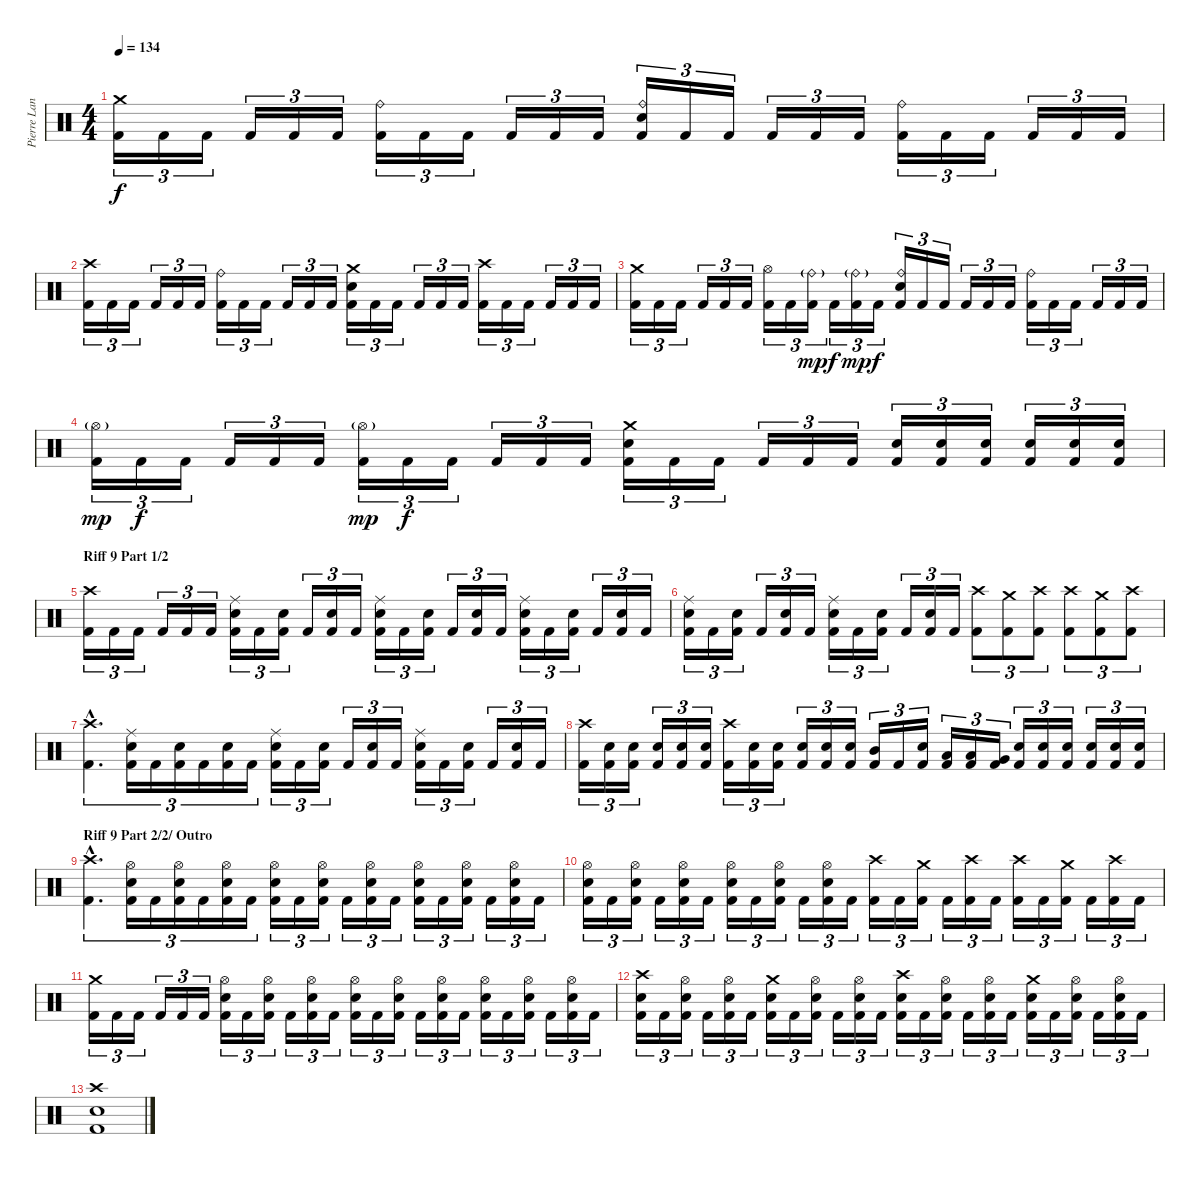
\track ("Pierre Langlois (Drums)" "Pierre Lan") {instrument percussion}
\staff {score}
\articulation defaults
\ts (4 4)
\tempo 134
\clef neutral
\ks c
("Crash medium (hit)" "Kick (hit) 2").16{tu (3 2) dy f} "Kick (hit) 2".16{tu (3 2)} "Kick (hit) 2".16{tu (3 2)} "Kick (hit) 2".16{tu (3 2)} "Kick (hit) 2".16{tu (3 2)} "Kick (hit) 2".16{tu (3 2)} ("Ride (bell)" "Kick (hit) 2").16{tu (3 2)} "Kick (hit) 2".16{tu (3 2)} "Kick (hit) 2".16{tu (3 2)} "Kick (hit) 2".16{tu (3 2)} "Kick (hit) 2".16{tu (3 2)} "Kick (hit) 2".16{tu (3 2)} ("Ride (bell)" "Snare (hit) 2" "Kick (hit) 2").16{tu (3 2)} "Kick (hit) 2".16{tu (3 2)} "Kick (hit) 2".16{tu (3 2)} "Kick (hit) 2".16{tu (3 2)} "Kick (hit) 2".16{tu (3 2)} "Kick (hit) 2".16{tu (3 2)} ("Ride (bell)" "Kick (hit) 2").16{tu (3 2)} "Kick (hit) 2".16{tu (3 2)} "Kick (hit) 2".16{tu (3 2)} "Kick (hit) 2".16{tu (3 2)} "Kick (hit) 2".16{tu (3 2)} "Kick (hit) 2".16{tu (3 2)} |
("Crash high (hit)" "Kick (hit) 2").16{tu (3 2)} "Kick (hit) 2".16{tu (3 2)} "Kick (hit) 2".16{tu (3 2)} "Kick (hit) 2".16{tu (3 2)} "Kick (hit) 2".16{tu (3 2)} "Kick (hit) 2".16{tu (3 2)} ("Ride (bell)" "Kick (hit) 2").16{tu (3 2)} "Kick (hit) 2".16{tu (3 2)} "Kick (hit) 2".16{tu (3 2)} "Kick (hit) 2".16{tu (3 2)} "Kick (hit) 2".16{tu (3 2)} "Kick (hit) 2".16{tu (3 2)} ("Crash medium (hit)" "Snare (hit) 2" "Kick (hit) 2").16{tu (3 2)} "Kick (hit) 2".16{tu (3 2)} "Kick (hit) 2".16{tu (3 2)} "Kick (hit) 2".16{tu (3 2)} "Kick (hit) 2".16{tu (3 2)} "Kick (hit) 2".16{tu (3 2)} ("Crash high (hit)" "Kick (hit) 2").16{tu (3 2)} "Kick (hit) 2".16{tu (3 2)} "Kick (hit) 2".16{tu (3 2)} "Kick (hit) 2".16{tu (3 2)} "Kick (hit) 2".16{tu (3 2)} "Kick (hit) 2".16{tu (3 2)} |
("Crash medium (hit)" "Kick (hit) 2").16{tu (3 2)} "Kick (hit) 2".16{tu (3 2)} "Kick (hit) 2".16{tu (3 2)} "Kick (hit) 2".16{tu (3 2)} "Kick (hit) 2".16{tu (3 2)} "Kick (hit) 2".16{tu (3 2)} ("Hi-Hat (open)" "Kick (hit) 2").16{tu (3 2)} "Kick (hit) 2".16{tu (3 2)} ("Ride (bell)"{g} "Kick (hit) 2").16{tu (3 2) dy mp} "Kick (hit) 2".16{tu (3 2) dy f} ("Ride (bell)"{g} "Kick (hit) 2").16{tu (3 2) dy mp} "Kick (hit) 2".16{tu (3 2) dy f} ("Ride (bell)" "Snare (hit) 2" "Kick (hit) 2").16{tu (3 2)} "Kick (hit) 2".16{tu (3 2)} "Kick (hit) 2".16{tu (3 2)} "Kick (hit) 2".16{tu (3 2)} "Kick (hit) 2".16{tu (3 2)} "Kick (hit) 2".16{tu (3 2)} ("Ride (bell)" "Kick (hit) 2").16{tu (3 2)} "Kick (hit) 2".16{tu (3 2)} "Kick (hit) 2".16{tu (3 2)} "Kick (hit) 2".16{tu (3 2)} "Kick (hit) 2".16{tu (3 2)} "Kick (hit) 2".16{tu (3 2)} |
("Hi-Hat (open)"{g} "Kick (hit) 2").16{tu (3 2) dy mp} "Kick (hit) 2".16{tu (3 2) dy f} "Kick (hit) 2".16{tu (3 2)} "Kick (hit) 2".16{tu (3 2)} "Kick (hit) 2".16{tu (3 2)} "Kick (hit) 2".16{tu (3 2)} ("Hi-Hat (open)"{g} "Kick (hit) 2").16{tu (3 2) dy mp} "Kick (hit) 2".16{tu (3 2) dy f} "Kick (hit) 2".16{tu (3 2)} "Kick (hit) 2".16{tu (3 2)} "Kick (hit) 2".16{tu (3 2)} "Kick (hit) 2".16{tu (3 2)} ("Crash medium (hit)" "Snare (hit) 2" "Kick (hit) 2").16{tu (3 2)} "Kick (hit) 2".16{tu (3 2)} "Kick (hit) 2".16{tu (3 2)} "Kick (hit) 2".16{tu (3 2)} "Kick (hit) 2".16{tu (3 2)} "Kick (hit) 2".16{tu (3 2)} ("Snare (hit) 2" "Kick (hit) 2").16{tu (3 2)} ("Snare (hit) 2" "Kick (hit) 2").16{tu (3 2)} ("Snare (hit) 2" "Kick (hit) 2").16{tu (3 2)} ("Snare (hit) 2" "Kick (hit) 2").16{tu (3 2)} ("Snare (hit) 2" "Kick (hit) 2").16{tu (3 2)} ("Snare (hit) 2" "Kick (hit) 2").16{tu (3 2)} |
\section ("" "Riff 9 Part 1/2")
("Crash high (hit)" "Kick (hit) 2").16{tu (3 2)} "Kick (hit) 2".16{tu (3 2)} "Kick (hit) 2".16{tu (3 2)} "Kick (hit) 2".16{tu (3 2)} "Kick (hit) 2".16{tu (3 2)} "Kick (hit) 2".16{tu (3 2)} ("Ride (middle)" "Snare (hit) 2" "Kick (hit) 2").16{tu (3 2)} "Kick (hit) 2".16{tu (3 2)} ("Snare (hit) 2" "Kick (hit) 2").16{tu (3 2)} "Kick (hit) 2".16{tu (3 2)} ("Snare (hit) 2" "Kick (hit) 2").16{tu (3 2)} "Kick (hit) 2".16{tu (3 2)} ("Snare (hit) 2" "Ride (middle)" "Kick (hit) 2").16{tu (3 2)} "Kick (hit) 2".16{tu (3 2)} ("Snare (hit) 2" "Kick (hit) 2").16{tu (3 2)} "Kick (hit) 2".16{tu (3 2)} ("Snare (hit) 2" "Kick (hit) 2").16{tu (3 2)} "Kick (hit) 2".16{tu (3 2)} ("Snare (hit) 2" "Ride (middle)" "Kick (hit) 2").16{tu (3 2)} "Kick (hit) 2".16{tu (3 2)} ("Snare (hit) 2" "Kick (hit) 2").16{tu (3 2)} "Kick (hit) 2".16{tu (3 2)} ("Snare (hit) 2" "Kick (hit) 2").16{tu (3 2)} "Kick (hit) 2".16{tu (3 2)} |
("Ride (middle)" "Snare (hit) 2" "Kick (hit) 2").16{tu (3 2)} "Kick (hit) 2".16{tu (3 2)} ("Snare (hit) 2" "Kick (hit) 2").16{tu (3 2)} "Kick (hit) 2".16{tu (3 2)} ("Snare (hit) 2" "Kick (hit) 2").16{tu (3 2)} "Kick (hit) 2".16{tu (3 2)} ("Ride (middle)" "Snare (hit) 2" "Kick (hit) 2").16{tu (3 2)} "Kick (hit) 2".16{tu (3 2)} ("Snare (hit) 2" "Kick (hit) 2").16{tu (3 2)} "Kick (hit) 2".16{tu (3 2)} ("Snare (hit) 2" "Kick (hit) 2").16{tu (3 2)} "Kick (hit) 2".16{tu (3 2)} ("Crash high (hit)" "Kick (hit) 2").8{tu (3 2)} ("Crash medium (hit)" "Kick (hit) 2").8{tu (3 2)} ("Crash high (hit)" "Kick (hit) 2").8{tu (3 2)} ("Crash high (hit)" "Kick (hit) 2").8{tu (3 2)} ("Crash medium (hit)" "Kick (hit) 2").8{tu (3 2)} ("Crash high (hit)" "Kick (hit) 2").8{tu (3 2)} |
("Crash high (hit)"{hac} "Kick (hit) 2"{hac}).4{d tu (3 2)} ("Ride (middle)" "Snare (hit) 2" "Kick (hit) 2").16{tu (3 2)} "Kick (hit) 2".16{tu (3 2)} ("Snare (hit) 2" "Kick (hit) 2").16{tu (3 2)} "Kick (hit) 2".16{tu (3 2)} ("Snare (hit) 2" "Kick (hit) 2").16{tu (3 2)} "Kick (hit) 2".16{tu (3 2)} ("Snare (hit) 2" "Ride (middle)" "Kick (hit) 2").16{tu (3 2)} "Kick (hit) 2".16{tu (3 2)} ("Snare (hit) 2" "Kick (hit) 2").16{tu (3 2)} "Kick (hit) 2".16{tu (3 2)} ("Snare (hit) 2" "Kick (hit) 2").16{tu (3 2)} "Kick (hit) 2".16{tu (3 2)} ("Snare (hit) 2" "Ride (middle)" "Kick (hit) 2").16{tu (3 2)} "Kick (hit) 2".16{tu (3 2)} ("Snare (hit) 2" "Kick (hit) 2").16{tu (3 2)} "Kick (hit) 2".16{tu (3 2)} ("Snare (hit) 2" "Kick (hit) 2").16{tu (3 2)} "Kick (hit) 2".16{tu (3 2)} |
("Crash high (hit)" "Kick (hit) 2").16{tu (3 2)} ("Snare (hit) 2" "Kick (hit) 2").16{tu (3 2)} ("Snare (hit) 2" "Kick (hit) 2").16{tu (3 2)} ("Snare (hit) 2" "Kick (hit) 2").16{tu (3 2)} ("Snare (hit) 2" "Kick (hit) 2").16{tu (3 2)} ("Snare (hit) 2" "Kick (hit) 2").16{tu (3 2)} ("Crash high (hit)" "Kick (hit) 2").16{tu (3 2)} ("Snare (hit) 2" "Kick (hit) 2").16{tu (3 2)} ("Snare (hit) 2" "Kick (hit) 2").16{tu (3 2)} ("Snare (hit) 2" "Kick (hit) 2").16{tu (3 2)} ("Snare (hit) 2" "Kick (hit) 2").16{tu (3 2)} ("Snare (hit) 2" "Kick (hit) 2").16{tu (3 2)} ("Mid Tom (hit)" "Kick (hit) 2").16{tu (3 2)} "Kick (hit) 2".16{tu (3 2)} ("Snare (hit) 2" "Kick (hit) 2").16{tu (3 2)} ("Low Tom (hit)" "Kick (hit) 2").16{tu (3 2)} ("Low Tom (hit)" "Kick (hit) 2").16{tu (3 2)} ("Very Low Tom (hit)" "Kick (hit) 2").16{tu (3 2)} ("Snare (hit) 2" "Kick (hit) 2").16{tu (3 2)} ("Snare (hit) 2" "Kick (hit) 2").16{tu (3 2)} ("Snare (hit) 2" "Kick (hit) 2").16{tu (3 2)} ("Snare (hit) 2" "Kick (hit) 2").16{tu (3 2)} ("Snare (hit) 2" "Kick (hit) 2").16{tu (3 2)} ("Snare (hit) 2" "Kick (hit) 2").16{tu (3 2)} |
\section ("" "Riff 9 Part 2/2/ Outro")
("Crash high (hit)"{hac} "Kick (hit) 2"{hac}).4{d tu (3 2)} ("Hi-Hat (open)" "Snare (hit) 2" "Kick (hit) 2").16{tu (3 2)} "Kick (hit) 2".16{tu (3 2)} ("Hi-Hat (open)" "Snare (hit) 2" "Kick (hit) 2").16{tu (3 2)} "Kick (hit) 2".16{tu (3 2)} ("Hi-Hat (open)" "Snare (hit) 2" "Kick (hit) 2").16{tu (3 2)} "Kick (hit) 2".16{tu (3 2)} ("Snare (hit) 2" "Hi-Hat (open)" "Kick (hit) 2").16{tu (3 2)} "Kick (hit) 2".16{tu (3 2)} ("Hi-Hat (open)" "Snare (hit) 2" "Kick (hit) 2").16{tu (3 2)} "Kick (hit) 2".16{tu (3 2)} ("Hi-Hat (open)" "Snare (hit) 2" "Kick (hit) 2").16{tu (3 2)} "Kick (hit) 2".16{tu (3 2)} ("Snare (hit) 2" "Hi-Hat (open)" "Kick (hit) 2").16{tu (3 2)} "Kick (hit) 2".16{tu (3 2)} ("Hi-Hat (open)" "Snare (hit) 2" "Kick (hit) 2").16{tu (3 2)} "Kick (hit) 2".16{tu (3 2)} ("Hi-Hat (open)" "Snare (hit) 2" "Kick (hit) 2").16{tu (3 2)} "Kick (hit) 2".16{tu (3 2)} |
("Hi-Hat (open)" "Snare (hit) 2" "Kick (hit) 2").16{tu (3 2)} "Kick (hit) 2".16{tu (3 2)} ("Hi-Hat (open)" "Snare (hit) 2" "Kick (hit) 2").16{tu (3 2)} "Kick (hit) 2".16{tu (3 2)} ("Hi-Hat (open)" "Snare (hit) 2" "Kick (hit) 2").16{tu (3 2)} "Kick (hit) 2".16{tu (3 2)} ("Hi-Hat (open)" "Snare (hit) 2" "Kick (hit) 2").16{tu (3 2)} "Kick (hit) 2".16{tu (3 2)} ("Hi-Hat (open)" "Snare (hit) 2" "Kick (hit) 2").16{tu (3 2)} "Kick (hit) 2".16{tu (3 2)} ("Hi-Hat (open)" "Snare (hit) 2" "Kick (hit) 2").16{tu (3 2)} "Kick (hit) 2".16{tu (3 2)} ("Crash high (hit)" "Kick (hit) 2").16{tu (3 2)} "Kick (hit) 2".16{tu (3 2)} ("Crash medium (hit)" "Kick (hit) 2").16{tu (3 2)} "Kick (hit) 2".16{tu (3 2)} ("Crash high (hit)" "Kick (hit) 2").16{tu (3 2)} "Kick (hit) 2".16{tu (3 2)} ("Crash high (hit)" "Kick (hit) 2").16{tu (3 2)} "Kick (hit) 2".16{tu (3 2)} ("Crash medium (hit)" "Kick (hit) 2").16{tu (3 2)} "Kick (hit) 2".16{tu (3 2)} ("Crash high (hit)" "Kick (hit) 2").16{tu (3 2)} "Kick (hit) 2".16{tu (3 2)} |
("Crash medium (hit)" "Kick (hit) 2").16{tu (3 2)} "Kick (hit) 2".16{tu (3 2)} "Kick (hit) 2".16{tu (3 2)} "Kick (hit) 2".16{tu (3 2)} "Kick (hit) 2".16{tu (3 2)} "Kick (hit) 2".16{tu (3 2)} ("Snare (hit) 2" "Hi-Hat (open)" "Kick (hit) 2").16{tu (3 2)} "Kick (hit) 2".16{tu (3 2)} ("Hi-Hat (open)" "Snare (hit) 2" "Kick (hit) 2").16{tu (3 2)} "Kick (hit) 2".16{tu (3 2)} ("Hi-Hat (open)" "Snare (hit) 2" "Kick (hit) 2").16{tu (3 2)} "Kick (hit) 2".16{tu (3 2)} ("Snare (hit) 2" "Hi-Hat (open)" "Kick (hit) 2").16{tu (3 2)} "Kick (hit) 2".16{tu (3 2)} ("Hi-Hat (open)" "Snare (hit) 2" "Kick (hit) 2").16{tu (3 2)} "Kick (hit) 2".16{tu (3 2)} ("Hi-Hat (open)" "Snare (hit) 2" "Kick (hit) 2").16{tu (3 2)} "Kick (hit) 2".16{tu (3 2)} ("Hi-Hat (open)" "Snare (hit) 2" "Kick (hit) 2").16{tu (3 2)} "Kick (hit) 2".16{tu (3 2)} ("Hi-Hat (open)" "Snare (hit) 2" "Kick (hit) 2").16{tu (3 2)} "Kick (hit) 2".16{tu (3 2)} ("Hi-Hat (open)" "Snare (hit) 2" "Kick (hit) 2").16{tu (3 2)} "Kick (hit) 2".16{tu (3 2)} |
("Crash high (hit)" "Snare (hit) 2" "Kick (hit) 2").16{tu (3 2)} "Kick (hit) 2".16{tu (3 2)} ("Hi-Hat (open)" "Snare (hit) 2" "Kick (hit) 2").16{tu (3 2)} "Kick (hit) 2".16{tu (3 2)} ("Hi-Hat (open)" "Snare (hit) 2" "Kick (hit) 2").16{tu (3 2)} "Kick (hit) 2".16{tu (3 2)} ("Crash medium (hit)" "Snare (hit) 2" "Kick (hit) 2").16{tu (3 2)} "Kick (hit) 2".16{tu (3 2)} ("Hi-Hat (open)" "Snare (hit) 2" "Kick (hit) 2").16{tu (3 2)} "Kick (hit) 2".16{tu (3 2)} ("Hi-Hat (open)" "Snare (hit) 2" "Kick (hit) 2").16{tu (3 2)} "Kick (hit) 2".16{tu (3 2)} ("Crash high (hit)" "Snare (hit) 2" "Kick (hit) 2").16{tu (3 2)} "Kick (hit) 2".16{tu (3 2)} ("Hi-Hat (open)" "Snare (hit) 2" "Kick (hit) 2").16{tu (3 2)} "Kick (hit) 2".16{tu (3 2)} ("Hi-Hat (open)" "Snare (hit) 2" "Kick (hit) 2").16{tu (3 2)} "Kick (hit) 2".16{tu (3 2)} ("Crash medium (hit)" "Snare (hit) 2" "Kick (hit) 2").16{tu (3 2)} "Kick (hit) 2".16{tu (3 2)} ("Hi-Hat (open)" "Snare (hit) 2" "Kick (hit) 2").16{tu (3 2)} "Kick (hit) 2".16{tu (3 2)} ("Hi-Hat (open)" "Snare (hit) 2" "Kick (hit) 2").16{tu (3 2)} "Kick (hit) 2".16{tu (3 2)} |
("Crash high (hit)" "Snare (hit) 2" "Kick (hit) 2").1
